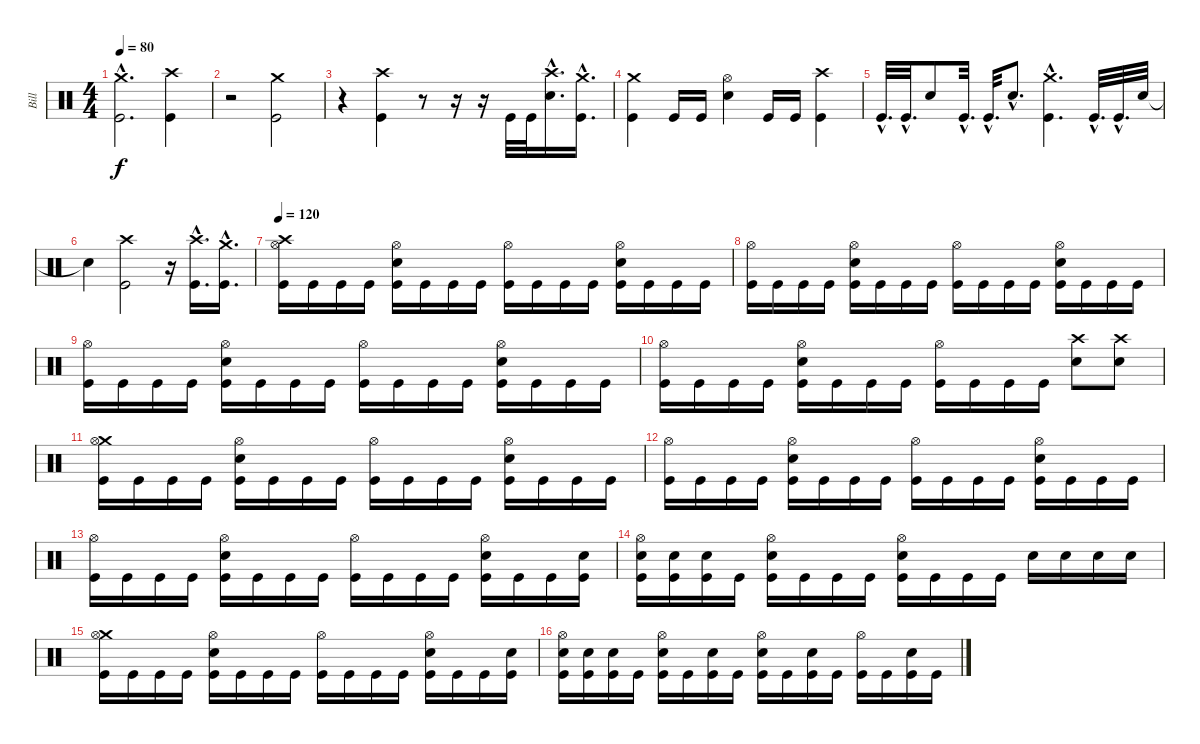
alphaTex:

\track ("Bill" "Bill") {instrument percussion}
\staff {score}
\articulation defaults
\ts (4 4)
\tempo 80
\clef neutral
\ks c
("Crash medium (hit)"{hac} "Kick (hit)"{hac}).2{d dy f} ("Crash high (hit)" "Kick (hit)").4 |
r.2 ("Crash medium (hit)" "Kick (hit)").2 |
r.4 ("Crash high (hit)" "Kick (hit)").4 r.8 r.16 r.16 "Kick (hit)".32 "Kick (hit)".32 ("Crash high (hit)"{hac} "Snare (hit) 2"{hac}).16{d} ("Crash medium (hit)"{hac} "Kick (hit)"{hac}).16{d} |
("Crash medium (hit)" "Kick (hit)").4 "Kick (hit)".16 "Kick (hit)".16 ("Hi-Hat (open)" "Snare (hit) 2").4 "Kick (hit)".16 "Kick (hit)".16 ("Crash high (hit)" "Kick (hit)").4 |
"Kick (hit)"{hac}.32{d} "Kick (hit)"{hac}.32{d} "Snare (hit) 2".8 "Kick (hit)"{hac}.32{d} "Kick (hit)"{hac}.32{d} "Snare (hit) 2"{hac}.8{d} ("Crash medium (hit)"{hac} "Kick (hit)"{hac}).4{d} "Kick (hit)"{hac}.32{d} "Kick (hit)"{hac}.32{d} "Snare (hit) 2".32 |
"Snare (hit)"{t}.4 ("Crash high (hit)" "Kick (hit)").2 r.16 ("Crash high (hit)"{hac} "Kick (hit)"{hac}).16{d} ("Crash medium (hit)"{hac} "Kick (hit)"{hac}).16{d} |
\tempo 120
("Crash high (hit)" "Hi-Hat (open)" "Kick (hit)").16 "Kick (hit)".16 "Kick (hit)".16 "Kick (hit)".16 ("Snare (hit) 2" "Hi-Hat (open)" "Kick (hit)").16 "Kick (hit)".16 "Kick (hit)".16 "Kick (hit)".16 ("Hi-Hat (open)" "Kick (hit)").16 "Kick (hit)".16 "Kick (hit)".16 "Kick (hit)".16 ("Snare (hit) 2" "Hi-Hat (open)" "Kick (hit)").16 "Kick (hit)".16 "Kick (hit)".16 "Kick (hit)".16 |
("Hi-Hat (open)" "Kick (hit)").16 "Kick (hit)".16 "Kick (hit)".16 "Kick (hit)".16 ("Snare (hit) 2" "Hi-Hat (open)" "Kick (hit)").16 "Kick (hit)".16 "Kick (hit)".16 "Kick (hit)".16 ("Hi-Hat (open)" "Kick (hit)").16 "Kick (hit)".16 "Kick (hit)".16 "Kick (hit)".16 ("Snare (hit) 2" "Hi-Hat (open)" "Kick (hit)").16 "Kick (hit)".16 "Kick (hit)".16 "Kick (hit)".16 |
("Hi-Hat (open)" "Kick (hit)").16 "Kick (hit)".16 "Kick (hit)".16 "Kick (hit)".16 ("Snare (hit) 2" "Hi-Hat (open)" "Kick (hit)").16 "Kick (hit)".16 "Kick (hit)".16 "Kick (hit)".16 ("Hi-Hat (open)" "Kick (hit)").16 "Kick (hit)".16 "Kick (hit)".16 "Kick (hit)".16 ("Snare (hit) 2" "Hi-Hat (open)" "Kick (hit)").16 "Kick (hit)".16 "Kick (hit)".16 "Kick (hit)".16 |
("Hi-Hat (open)" "Kick (hit)").16 "Kick (hit)".16 "Kick (hit)".16 "Kick (hit)".16 ("Snare (hit) 2" "Hi-Hat (open)" "Kick (hit)").16 "Kick (hit)".16 "Kick (hit)".16 "Kick (hit)".16 ("Hi-Hat (open)" "Kick (hit)").16 "Kick (hit)".16 "Kick (hit)".16 "Kick (hit)".16 ("Crash high (hit)" "Snare (hit) 2").8 ("Crash high (hit)" "Snare (hit) 2").8 |
("Crash medium (hit)" "Hi-Hat (open)" "Kick (hit)").16 "Kick (hit)".16 "Kick (hit)".16 "Kick (hit)".16 ("Snare (hit) 2" "Hi-Hat (open)" "Kick (hit)").16 "Kick (hit)".16 "Kick (hit)".16 "Kick (hit)".16 ("Hi-Hat (open)" "Kick (hit)").16 "Kick (hit)".16 "Kick (hit)".16 "Kick (hit)".16 ("Snare (hit) 2" "Hi-Hat (open)" "Kick (hit)").16 "Kick (hit)".16 "Kick (hit)".16 "Kick (hit)".16 |
("Hi-Hat (open)" "Kick (hit)").16 "Kick (hit)".16 "Kick (hit)".16 "Kick (hit)".16 ("Snare (hit) 2" "Hi-Hat (open)" "Kick (hit)").16 "Kick (hit)".16 "Kick (hit)".16 "Kick (hit)".16 ("Hi-Hat (open)" "Kick (hit)").16 "Kick (hit)".16 "Kick (hit)".16 "Kick (hit)".16 ("Snare (hit) 2" "Hi-Hat (open)" "Kick (hit)").16 "Kick (hit)".16 "Kick (hit)".16 "Kick (hit)".16 |
("Hi-Hat (open)" "Kick (hit)").16 "Kick (hit)".16 "Kick (hit)".16 "Kick (hit)".16 ("Snare (hit) 2" "Hi-Hat (open)" "Kick (hit)").16 "Kick (hit)".16 "Kick (hit)".16 "Kick (hit)".16 ("Hi-Hat (open)" "Kick (hit)").16 "Kick (hit)".16 "Kick (hit)".16 "Kick (hit)".16 ("Snare (hit) 2" "Hi-Hat (open)" "Kick (hit)").16 "Kick (hit)".16 "Kick (hit)".16 ("Snare (hit) 2" "Kick (hit)").16 |
("Snare (hit) 2" "Hi-Hat (open)" "Kick (hit)").16 ("Snare (hit) 2" "Kick (hit)").16 ("Snare (hit) 2" "Kick (hit)").16 "Kick (hit)".16 ("Snare (hit) 2" "Hi-Hat (open)" "Kick (hit)").16 "Kick (hit)".16 "Kick (hit)".16 "Kick (hit)".16 ("Snare (hit) 2" "Hi-Hat (open)" "Kick (hit)").16 "Kick (hit)".16 "Kick (hit)".16 "Kick (hit)".16 "Snare (hit) 2".16 "Snare (hit) 2".16 "Snare (hit) 2".16 "Snare (hit) 2".16 |
("Crash medium (hit)" "Hi-Hat (open)" "Kick (hit)").16 "Kick (hit)".16 "Kick (hit)".16 "Kick (hit)".16 ("Snare (hit) 2" "Hi-Hat (open)" "Kick (hit)").16 "Kick (hit)".16 "Kick (hit)".16 "Kick (hit)".16 ("Hi-Hat (open)" "Kick (hit)").16 "Kick (hit)".16 "Kick (hit)".16 "Kick (hit)".16 ("Snare (hit) 2" "Hi-Hat (open)" "Kick (hit)").16 "Kick (hit)".16 "Kick (hit)".16 ("Snare (hit) 2" "Kick (hit)").16 |
("Snare (hit) 2" "Hi-Hat (open)" "Kick (hit)").16 ("Snare (hit) 2" "Kick (hit)").16 ("Snare (hit) 2" "Kick (hit)").16 "Kick (hit)".16 ("Snare (hit) 2" "Hi-Hat (open)" "Kick (hit)").16 "Kick (hit)".16 ("Snare (hit) 2" "Kick (hit)").16 "Kick (hit)".16 ("Snare (hit) 2" "Hi-Hat (open)" "Kick (hit)").16 "Kick (hit)".16 ("Snare (hit) 2" "Kick (hit)").16 "Kick (hit)".16 ("Hi-Hat (open)" "Kick (hit)").16 "Kick (hit)".16 ("Snare (hit) 2" "Kick (hit)").16 "Kick (hit)".16
